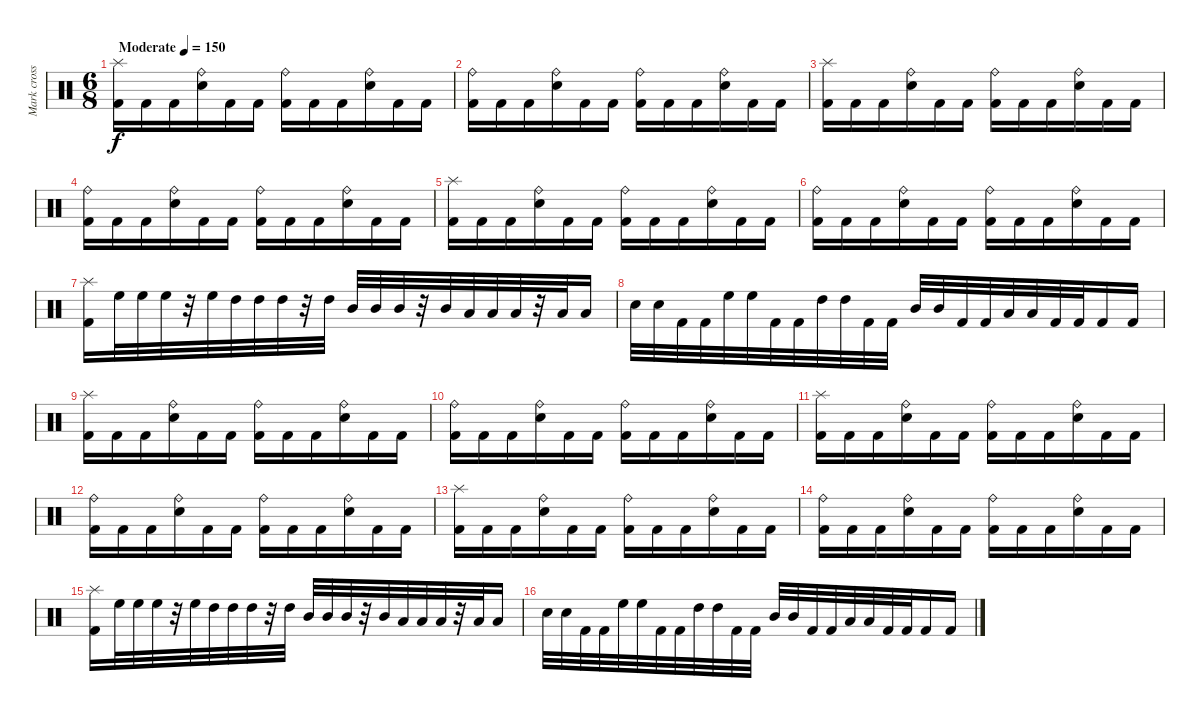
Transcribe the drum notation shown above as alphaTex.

\track ("Mark cross" "Mark cross") {instrument percussion}
\staff {score}
\articulation defaults
\ts (6 8)
\tempo (150 "Moderate")
\clef neutral
\ks c
("Splash (hit)" "Kick (hit) 2").16{dy f} "Kick (hit) 2".16 "Kick (hit) 2".16 ("Ride (bell)" "Snare (hit) 2").16 "Kick (hit) 2".16 "Kick (hit) 2".16 ("Ride (bell)" "Kick (hit) 2").16 "Kick (hit) 2".16 "Kick (hit) 2".16 ("Ride (bell)" "Snare (hit) 2").16 "Kick (hit) 2".16 "Kick (hit) 2".16 |
("Ride (bell)" "Kick (hit) 2").16 "Kick (hit) 2".16 "Kick (hit) 2".16 ("Ride (bell)" "Snare (hit) 2").16 "Kick (hit) 2".16 "Kick (hit) 2".16 ("Ride (bell)" "Kick (hit) 2").16 "Kick (hit) 2".16 "Kick (hit) 2".16 ("Ride (bell)" "Snare (hit) 2").16 "Kick (hit) 2".16 "Kick (hit) 2".16 |
("Splash (hit)" "Kick (hit) 2").16 "Kick (hit) 2".16 "Kick (hit) 2".16 ("Ride (bell)" "Snare (hit) 2").16 "Kick (hit) 2".16 "Kick (hit) 2".16 ("Ride (bell)" "Kick (hit) 2").16 "Kick (hit) 2".16 "Kick (hit) 2".16 ("Ride (bell)" "Snare (hit) 2").16 "Kick (hit) 2".16 "Kick (hit) 2".16 |
("Ride (bell)" "Kick (hit) 2").16 "Kick (hit) 2".16 "Kick (hit) 2".16 ("Ride (bell)" "Snare (hit) 2").16 "Kick (hit) 2".16 "Kick (hit) 2".16 ("Ride (bell)" "Kick (hit) 2").16 "Kick (hit) 2".16 "Kick (hit) 2".16 ("Ride (bell)" "Snare (hit) 2").16 "Kick (hit) 2".16 "Kick (hit) 2".16 |
("Splash (hit)" "Kick (hit) 2").16 "Kick (hit) 2".16 "Kick (hit) 2".16 ("Ride (bell)" "Snare (hit) 2").16 "Kick (hit) 2".16 "Kick (hit) 2".16 ("Ride (bell)" "Kick (hit) 2").16 "Kick (hit) 2".16 "Kick (hit) 2".16 ("Ride (bell)" "Snare (hit) 2").16 "Kick (hit) 2".16 "Kick (hit) 2".16 |
("Ride (bell)" "Kick (hit) 2").16 "Kick (hit) 2".16 "Kick (hit) 2".16 ("Ride (bell)" "Snare (hit) 2").16 "Kick (hit) 2".16 "Kick (hit) 2".16 ("Ride (bell)" "Kick (hit) 2").16 "Kick (hit) 2".16 "Kick (hit) 2".16 ("Ride (bell)" "Snare (hit) 2").16 "Kick (hit) 2".16 "Kick (hit) 2".16 |
("Splash (hit)" "Kick (hit) 2").16 "High Floor Tom (hit)".32 "High Floor Tom (hit)".32 "High Floor Tom (hit)".32 r.32 "High Floor Tom (hit)".32 "High Tom (hit)".32 "High Tom (hit)".32 "High Tom (hit)".32 r.32 "High Tom (hit)".32 "Mid Tom (hit)".32 "Mid Tom (hit)".32 "Mid Tom (hit)".32 r.32 "Mid Tom (hit)".32 "Low Tom (hit)".32 "Low Tom (hit)".32 "Low Tom (hit)".32 r.32 "Low Tom (hit)".32 "Low Tom (hit)".16 |
"Snare (hit) 2".32 "Snare (hit) 2".32 "Kick (hit) 2".32 "Kick (hit) 2".32 "High Floor Tom (hit)".32 "High Floor Tom (hit)".32 "Kick (hit) 2".32 "Kick (hit) 2".32 "High Tom (hit)".32 "High Tom (hit)".32 "Kick (hit) 2".32 "Kick (hit) 2".32 "Mid Tom (hit)".32 "Mid Tom (hit)".32 "Kick (hit) 2".32 "Kick (hit) 2".32 "Low Tom (hit)".32 "Low Tom (hit)".32 "Kick (hit) 2".32 "Kick (hit) 2".32 "Kick (hit) 2".16 "Kick (hit) 2".16 |
("Splash (hit)" "Kick (hit) 2").16 "Kick (hit) 2".16 "Kick (hit) 2".16 ("Ride (bell)" "Snare (hit) 2").16 "Kick (hit) 2".16 "Kick (hit) 2".16 ("Ride (bell)" "Kick (hit) 2").16 "Kick (hit) 2".16 "Kick (hit) 2".16 ("Ride (bell)" "Snare (hit) 2").16 "Kick (hit) 2".16 "Kick (hit) 2".16 |
("Ride (bell)" "Kick (hit) 2").16 "Kick (hit) 2".16 "Kick (hit) 2".16 ("Ride (bell)" "Snare (hit) 2").16 "Kick (hit) 2".16 "Kick (hit) 2".16 ("Ride (bell)" "Kick (hit) 2").16 "Kick (hit) 2".16 "Kick (hit) 2".16 ("Ride (bell)" "Snare (hit) 2").16 "Kick (hit) 2".16 "Kick (hit) 2".16 |
("Splash (hit)" "Kick (hit) 2").16 "Kick (hit) 2".16 "Kick (hit) 2".16 ("Ride (bell)" "Snare (hit) 2").16 "Kick (hit) 2".16 "Kick (hit) 2".16 ("Ride (bell)" "Kick (hit) 2").16 "Kick (hit) 2".16 "Kick (hit) 2".16 ("Ride (bell)" "Snare (hit) 2").16 "Kick (hit) 2".16 "Kick (hit) 2".16 |
("Ride (bell)" "Kick (hit) 2").16 "Kick (hit) 2".16 "Kick (hit) 2".16 ("Ride (bell)" "Snare (hit) 2").16 "Kick (hit) 2".16 "Kick (hit) 2".16 ("Ride (bell)" "Kick (hit) 2").16 "Kick (hit) 2".16 "Kick (hit) 2".16 ("Ride (bell)" "Snare (hit) 2").16 "Kick (hit) 2".16 "Kick (hit) 2".16 |
("Splash (hit)" "Kick (hit) 2").16 "Kick (hit) 2".16 "Kick (hit) 2".16 ("Ride (bell)" "Snare (hit) 2").16 "Kick (hit) 2".16 "Kick (hit) 2".16 ("Ride (bell)" "Kick (hit) 2").16 "Kick (hit) 2".16 "Kick (hit) 2".16 ("Ride (bell)" "Snare (hit) 2").16 "Kick (hit) 2".16 "Kick (hit) 2".16 |
("Ride (bell)" "Kick (hit) 2").16 "Kick (hit) 2".16 "Kick (hit) 2".16 ("Ride (bell)" "Snare (hit) 2").16 "Kick (hit) 2".16 "Kick (hit) 2".16 ("Ride (bell)" "Kick (hit) 2").16 "Kick (hit) 2".16 "Kick (hit) 2".16 ("Ride (bell)" "Snare (hit) 2").16 "Kick (hit) 2".16 "Kick (hit) 2".16 |
("Splash (hit)" "Kick (hit) 2").16 "High Floor Tom (hit)".32 "High Floor Tom (hit)".32 "High Floor Tom (hit)".32 r.32 "High Floor Tom (hit)".32 "High Tom (hit)".32 "High Tom (hit)".32 "High Tom (hit)".32 r.32 "High Tom (hit)".32 "Mid Tom (hit)".32 "Mid Tom (hit)".32 "Mid Tom (hit)".32 r.32 "Mid Tom (hit)".32 "Low Tom (hit)".32 "Low Tom (hit)".32 "Low Tom (hit)".32 r.32 "Low Tom (hit)".32 "Low Tom (hit)".16 |
"Snare (hit) 2".32 "Snare (hit) 2".32 "Kick (hit) 2".32 "Kick (hit) 2".32 "High Floor Tom (hit)".32 "High Floor Tom (hit)".32 "Kick (hit) 2".32 "Kick (hit) 2".32 "High Tom (hit)".32 "High Tom (hit)".32 "Kick (hit) 2".32 "Kick (hit) 2".32 "Mid Tom (hit)".32 "Mid Tom (hit)".32 "Kick (hit) 2".32 "Kick (hit) 2".32 "Low Tom (hit)".32 "Low Tom (hit)".32 "Kick (hit) 2".32 "Kick (hit) 2".32 "Kick (hit) 2".16 "Kick (hit) 2".16
